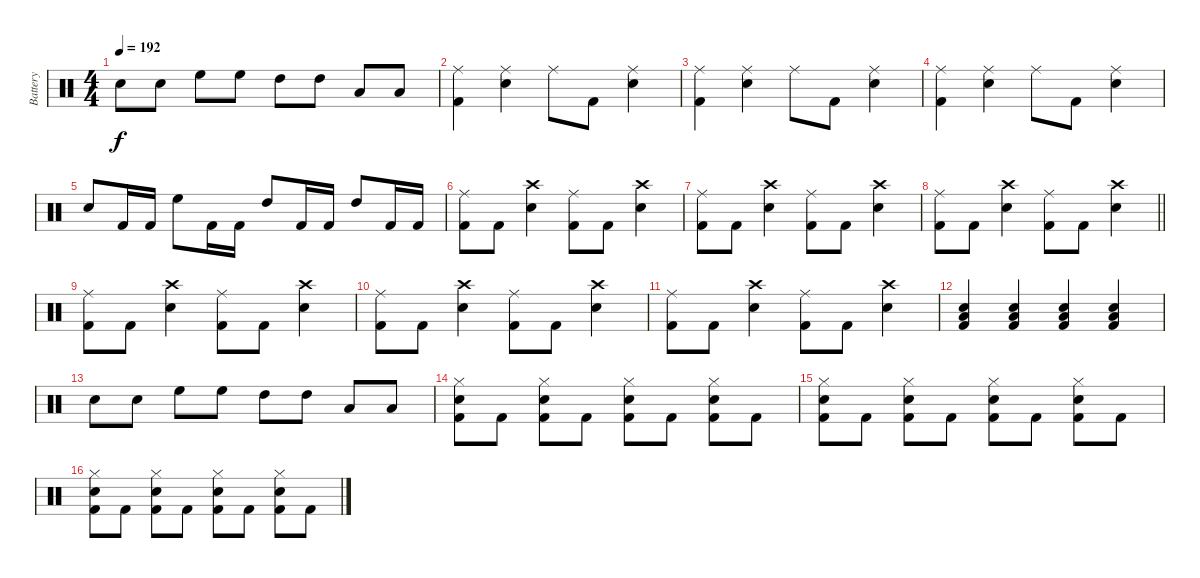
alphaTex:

\track ("Battery" "Battery") {instrument percussion}
\staff {score}
\articulation defaults
\ts (4 4)
\tempo 192
\clef neutral
\ks c "Snare (hit) 2".8{dy f} "Snare (hit) 2".8 "High Floor Tom (hit)".8 "High Floor Tom (hit)".8 "High Tom (hit)".8 "High Tom (hit)".8 "Low Tom (hit)".8 "Low Tom (hit)".8
|
("Ride (middle)" "Kick (hit) 2").4 ("Ride (middle)" "Snare (hit) 2").4 "Ride (middle)".8 "Kick (hit) 2".8 ("Ride (middle)" "Snare (hit) 2").4 |
("Ride (middle)" "Kick (hit) 2").4 ("Ride (middle)" "Snare (hit) 2").4 "Ride (middle)".8 "Kick (hit) 2".8 ("Ride (middle)" "Snare (hit) 2").4 |
("Ride (middle)" "Kick (hit) 2").4 ("Ride (middle)" "Snare (hit) 2").4 "Ride (middle)".8 "Kick (hit) 2".8 ("Ride (middle)" "Snare (hit) 2").4 |
"Snare (hit) 2".8 "Kick (hit) 2".16 "Kick (hit) 2".16 "High Floor Tom (hit)".8 "Kick (hit) 2".16 "Kick (hit) 2".16 "High Tom (hit)".8 "Kick (hit) 2".16 "Kick (hit) 2".16 "High Tom (hit)".8 "Kick (hit) 2".16 "Kick (hit) 2".16 |
("Ride (middle)" "Kick (hit) 2").8 "Kick (hit) 2".8 ("Crash high (hit)" "Snare (hit) 2").4 ("Ride (middle)" "Kick (hit) 2").8 "Kick (hit) 2".8 ("Crash high (hit)" "Snare (hit) 2").4 |
("Ride (middle)" "Kick (hit) 2").8 "Kick (hit) 2".8 ("Crash high (hit)" "Snare (hit) 2").4 ("Ride (middle)" "Kick (hit) 2").8 "Kick (hit) 2".8 ("Crash high (hit)" "Snare (hit) 2").4 |
\barLineRight lightlight
("Ride (middle)" "Kick (hit) 2").8 "Kick (hit) 2".8 ("Crash high (hit)" "Snare (hit) 2").4 ("Ride (middle)" "Kick (hit) 2").8 "Kick (hit) 2".8 ("Crash high (hit)" "Snare (hit) 2").4 |
("Ride (middle)" "Kick (hit) 2").8 "Kick (hit) 2".8 ("Crash high (hit)" "Snare (hit) 2").4 ("Ride (middle)" "Kick (hit) 2").8 "Kick (hit) 2".8 ("Crash high (hit)" "Snare (hit) 2").4 |
("Ride (middle)" "Kick (hit) 2").8 "Kick (hit) 2".8 ("Crash high (hit)" "Snare (hit) 2").4 ("Ride (middle)" "Kick (hit) 2").8 "Kick (hit) 2".8 ("Crash high (hit)" "Snare (hit) 2").4 |
("Ride (middle)" "Kick (hit) 2").8 "Kick (hit) 2".8 ("Crash high (hit)" "Snare (hit) 2").4 ("Ride (middle)" "Kick (hit) 2").8 "Kick (hit) 2".8 ("Crash high (hit)" "Snare (hit) 2").4 |
("Low Tom (hit)" "Snare (hit) 2" "Kick (hit) 2").4 ("Low Tom (hit)" "Snare (hit) 2" "Kick (hit) 2").4 ("Low Tom (hit)" "Snare (hit) 2" "Kick (hit) 2").4 ("Low Tom (hit)" "Snare (hit) 2" "Kick (hit) 2").4 |
"Snare (hit) 2".8 "Snare (hit) 2".8 "High Floor Tom (hit)".8 "High Floor Tom (hit)".8 "High Tom (hit)".8 "High Tom (hit)".8 "Low Tom (hit)".8 "Low Tom (hit)".8 |
("Hi-Hat (closed)" "Snare (hit) 2" "Kick (hit) 2").8 "Kick (hit) 2".8 ("Hi-Hat (closed)" "Snare (hit) 2" "Kick (hit) 2").8 "Kick (hit) 2".8 ("Hi-Hat (closed)" "Snare (hit) 2" "Kick (hit) 2").8 "Kick (hit) 2".8 ("Hi-Hat (closed)" "Snare (hit) 2" "Kick (hit) 2").8 "Kick (hit) 2".8 |
("Hi-Hat (closed)" "Snare (hit) 2" "Kick (hit) 2").8 "Kick (hit) 2".8 ("Hi-Hat (closed)" "Snare (hit) 2" "Kick (hit) 2").8 "Kick (hit) 2".8 ("Hi-Hat (closed)" "Snare (hit) 2" "Kick (hit) 2").8 "Kick (hit) 2".8 ("Hi-Hat (closed)" "Snare (hit) 2" "Kick (hit) 2").8 "Kick (hit) 2".8 |
("Hi-Hat (closed)" "Snare (hit) 2" "Kick (hit) 2").8 "Kick (hit) 2".8 ("Hi-Hat (closed)" "Snare (hit) 2" "Kick (hit) 2").8 "Kick (hit) 2".8 ("Hi-Hat (closed)" "Snare (hit) 2" "Kick (hit) 2").8 "Kick (hit) 2".8 ("Hi-Hat (closed)" "Snare (hit) 2" "Kick (hit) 2").8 "Kick (hit) 2".8
